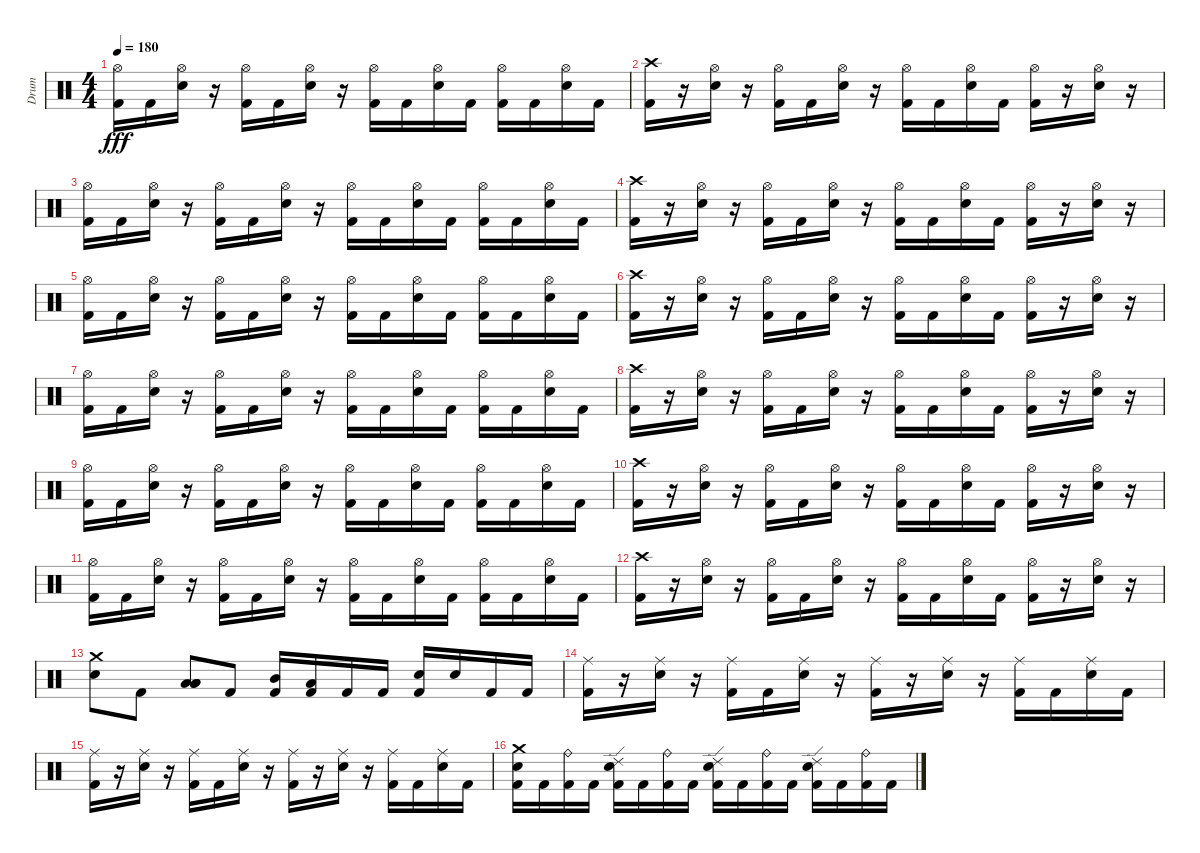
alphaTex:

\track ("Drum" "Drum") {instrument percussion}
\staff {score}
\articulation defaults
\ts (4 4)
\tempo 180
\clef neutral
\ks c
("Kick (hit) 2" "Hi-Hat (open)").16{dy fff} "Kick (hit) 2".16 ("Electric Snare (hit)" "Hi-Hat (open)").16 r.16 ("Kick (hit) 2" "Hi-Hat (open)").16 "Kick (hit) 2".16 ("Electric Snare (hit)" "Hi-Hat (open)").16 r.16 ("Kick (hit) 2" "Hi-Hat (open)").16 "Kick (hit) 2".16 ("Electric Snare (hit)" "Hi-Hat (open)").16 "Kick (hit) 2".16 ("Kick (hit) 2" "Hi-Hat (open)").16 "Kick (hit) 2".16 ("Electric Snare (hit)" "Hi-Hat (open)").16 "Kick (hit) 2".16 |
("Kick (hit) 2" "Crash high (hit)").16 r.16 ("Electric Snare (hit)" "Hi-Hat (open)").16 r.16 ("Kick (hit) 2" "Hi-Hat (open)").16 "Kick (hit) 2".16 ("Electric Snare (hit)" "Hi-Hat (open)").16 r.16 ("Kick (hit) 2" "Hi-Hat (open)").16 "Kick (hit) 2".16 ("Electric Snare (hit)" "Hi-Hat (open)").16 "Kick (hit) 2".16 ("Kick (hit) 2" "Hi-Hat (open)").16 r.16 ("Electric Snare (hit)" "Hi-Hat (open)").16 r.16 |
("Kick (hit) 2" "Hi-Hat (open)").16 "Kick (hit) 2".16 ("Electric Snare (hit)" "Hi-Hat (open)").16 r.16 ("Kick (hit) 2" "Hi-Hat (open)").16 "Kick (hit) 2".16 ("Electric Snare (hit)" "Hi-Hat (open)").16 r.16 ("Kick (hit) 2" "Hi-Hat (open)").16 "Kick (hit) 2".16 ("Electric Snare (hit)" "Hi-Hat (open)").16 "Kick (hit) 2".16 ("Kick (hit) 2" "Hi-Hat (open)").16 "Kick (hit) 2".16 ("Electric Snare (hit)" "Hi-Hat (open)").16 "Kick (hit) 2".16 |
("Kick (hit) 2" "Crash high (hit)").16 r.16 ("Electric Snare (hit)" "Hi-Hat (open)").16 r.16 ("Kick (hit) 2" "Hi-Hat (open)").16 "Kick (hit) 2".16 ("Electric Snare (hit)" "Hi-Hat (open)").16 r.16 ("Kick (hit) 2" "Hi-Hat (open)").16 "Kick (hit) 2".16 ("Electric Snare (hit)" "Hi-Hat (open)").16 "Kick (hit) 2".16 ("Kick (hit) 2" "Hi-Hat (open)").16 r.16 ("Electric Snare (hit)" "Hi-Hat (open)").16 r.16 |
("Kick (hit) 2" "Hi-Hat (open)").16 "Kick (hit) 2".16 ("Electric Snare (hit)" "Hi-Hat (open)").16 r.16 ("Kick (hit) 2" "Hi-Hat (open)").16 "Kick (hit) 2".16 ("Electric Snare (hit)" "Hi-Hat (open)").16 r.16 ("Kick (hit) 2" "Hi-Hat (open)").16 "Kick (hit) 2".16 ("Electric Snare (hit)" "Hi-Hat (open)").16 "Kick (hit) 2".16 ("Kick (hit) 2" "Hi-Hat (open)").16 "Kick (hit) 2".16 ("Electric Snare (hit)" "Hi-Hat (open)").16 "Kick (hit) 2".16 |
("Kick (hit) 2" "Crash high (hit)").16 r.16 ("Electric Snare (hit)" "Hi-Hat (open)").16 r.16 ("Kick (hit) 2" "Hi-Hat (open)").16 "Kick (hit) 2".16 ("Electric Snare (hit)" "Hi-Hat (open)").16 r.16 ("Kick (hit) 2" "Hi-Hat (open)").16 "Kick (hit) 2".16 ("Electric Snare (hit)" "Hi-Hat (open)").16 "Kick (hit) 2".16 ("Kick (hit) 2" "Hi-Hat (open)").16 r.16 ("Electric Snare (hit)" "Hi-Hat (open)").16 r.16 |
("Kick (hit) 2" "Hi-Hat (open)").16 "Kick (hit) 2".16 ("Electric Snare (hit)" "Hi-Hat (open)").16 r.16 ("Kick (hit) 2" "Hi-Hat (open)").16 "Kick (hit) 2".16 ("Electric Snare (hit)" "Hi-Hat (open)").16 r.16 ("Kick (hit) 2" "Hi-Hat (open)").16 "Kick (hit) 2".16 ("Electric Snare (hit)" "Hi-Hat (open)").16 "Kick (hit) 2".16 ("Kick (hit) 2" "Hi-Hat (open)").16 "Kick (hit) 2".16 ("Electric Snare (hit)" "Hi-Hat (open)").16 "Kick (hit) 2".16 |
("Kick (hit) 2" "Crash high (hit)").16 r.16 ("Electric Snare (hit)" "Hi-Hat (open)").16 r.16 ("Kick (hit) 2" "Hi-Hat (open)").16 "Kick (hit) 2".16 ("Electric Snare (hit)" "Hi-Hat (open)").16 r.16 ("Kick (hit) 2" "Hi-Hat (open)").16 "Kick (hit) 2".16 ("Electric Snare (hit)" "Hi-Hat (open)").16 "Kick (hit) 2".16 ("Kick (hit) 2" "Hi-Hat (open)").16 r.16 ("Electric Snare (hit)" "Hi-Hat (open)").16 r.16 |
("Kick (hit) 2" "Hi-Hat (open)").16 "Kick (hit) 2".16 ("Electric Snare (hit)" "Hi-Hat (open)").16 r.16 ("Kick (hit) 2" "Hi-Hat (open)").16 "Kick (hit) 2".16 ("Electric Snare (hit)" "Hi-Hat (open)").16 r.16 ("Kick (hit) 2" "Hi-Hat (open)").16 "Kick (hit) 2".16 ("Electric Snare (hit)" "Hi-Hat (open)").16 "Kick (hit) 2".16 ("Kick (hit) 2" "Hi-Hat (open)").16 "Kick (hit) 2".16 ("Electric Snare (hit)" "Hi-Hat (open)").16 "Kick (hit) 2".16 |
("Kick (hit) 2" "Crash high (hit)").16 r.16 ("Electric Snare (hit)" "Hi-Hat (open)").16 r.16 ("Kick (hit) 2" "Hi-Hat (open)").16 "Kick (hit) 2".16 ("Electric Snare (hit)" "Hi-Hat (open)").16 r.16 ("Kick (hit) 2" "Hi-Hat (open)").16 "Kick (hit) 2".16 ("Electric Snare (hit)" "Hi-Hat (open)").16 "Kick (hit) 2".16 ("Kick (hit) 2" "Hi-Hat (open)").16 r.16 ("Electric Snare (hit)" "Hi-Hat (open)").16 r.16 |
("Kick (hit) 2" "Hi-Hat (open)").16 "Kick (hit) 2".16 ("Electric Snare (hit)" "Hi-Hat (open)").16 r.16 ("Kick (hit) 2" "Hi-Hat (open)").16 "Kick (hit) 2".16 ("Electric Snare (hit)" "Hi-Hat (open)").16 r.16 ("Kick (hit) 2" "Hi-Hat (open)").16 "Kick (hit) 2".16 ("Electric Snare (hit)" "Hi-Hat (open)").16 "Kick (hit) 2".16 ("Kick (hit) 2" "Hi-Hat (open)").16 "Kick (hit) 2".16 ("Electric Snare (hit)" "Hi-Hat (open)").16 "Kick (hit) 2".16 |
("Kick (hit) 2" "Crash high (hit)").16 r.16 ("Electric Snare (hit)" "Hi-Hat (open)").16 r.16 ("Kick (hit) 2" "Hi-Hat (open)").16 "Kick (hit) 2".16 ("Electric Snare (hit)" "Hi-Hat (open)").16 r.16 ("Kick (hit) 2" "Hi-Hat (open)").16 "Kick (hit) 2".16 ("Electric Snare (hit)" "Hi-Hat (open)").16 "Kick (hit) 2".16 ("Kick (hit) 2" "Hi-Hat (open)").16 r.16 ("Electric Snare (hit)" "Hi-Hat (open)").16 r.16 |
("Electric Snare (hit)" "Crash medium (hit)").8 "Kick (hit) 2".8 ("Low Floor Tom (hit)" "Low Floor Tom (hit)" "Low Tom (hit)").8 "Kick (hit) 2".8 ("Kick (hit) 2" "Mid Tom (hit)").16 ("Kick (hit) 2" "Low Tom (hit)").16 "Kick (hit) 2".16 "Kick (hit) 2".16 ("Electric Snare (hit)" "Kick (hit) 2").16 "Electric Snare (hit)".16 "Kick (hit) 2".16 "Kick (hit) 2".16 |
("Kick (hit) 2" "Ride (middle)").16 r.16 ("Electric Snare (hit)" "Ride (middle)").16 r.16 ("Kick (hit) 2" "Ride (middle)").16 "Kick (hit) 2".16 ("Electric Snare (hit)" "Ride (middle)").16 r.16 ("Kick (hit) 2" "Ride (middle)").16 r.16 ("Electric Snare (hit)" "Ride (middle)").16 r.16 ("Kick (hit) 2" "Ride (middle)").16 "Kick (hit) 2".16 ("Electric Snare (hit)" "Ride (middle)").16 "Kick (hit) 2".16 |
("Kick (hit) 2" "Ride (middle)").16 r.16 ("Electric Snare (hit)" "Ride (middle)").16 r.16 ("Kick (hit) 2" "Ride (middle)").16 "Kick (hit) 2".16 ("Electric Snare (hit)" "Ride (middle)").16 r.16 ("Kick (hit) 2" "Ride (middle)").16 r.16 ("Electric Snare (hit)" "Ride (middle)").16 r.16 ("Kick (hit) 2" "Ride (middle)").16 "Kick (hit) 2".16 ("Electric Snare (hit)" "Ride (middle)").16 "Kick (hit) 2".16 |
("Kick (hit) 2" "Electric Snare (hit)" "Crash medium (hit)").16 "Kick (hit) 2".16 ("Kick (hit) 2" "Ride (bell)").16 "Kick (hit) 2".16 ("Kick (hit) 2" "Electric Snare (hit)" "Ride (edge) 2").16 "Kick (hit) 2".16 ("Kick (hit) 2" "Ride (bell)").16 "Kick (hit) 2".16 ("Electric Snare (hit)" "Kick (hit) 2" "Ride (edge) 2").16 "Kick (hit) 2".16 ("Kick (hit) 2" "Ride (bell)").16 "Kick (hit) 2".16 ("Kick (hit) 2" "Electric Snare (hit)" "Ride (edge) 2").16 "Kick (hit) 2".16 ("Kick (hit) 2" "Ride (bell)").16 "Kick (hit) 2".16
